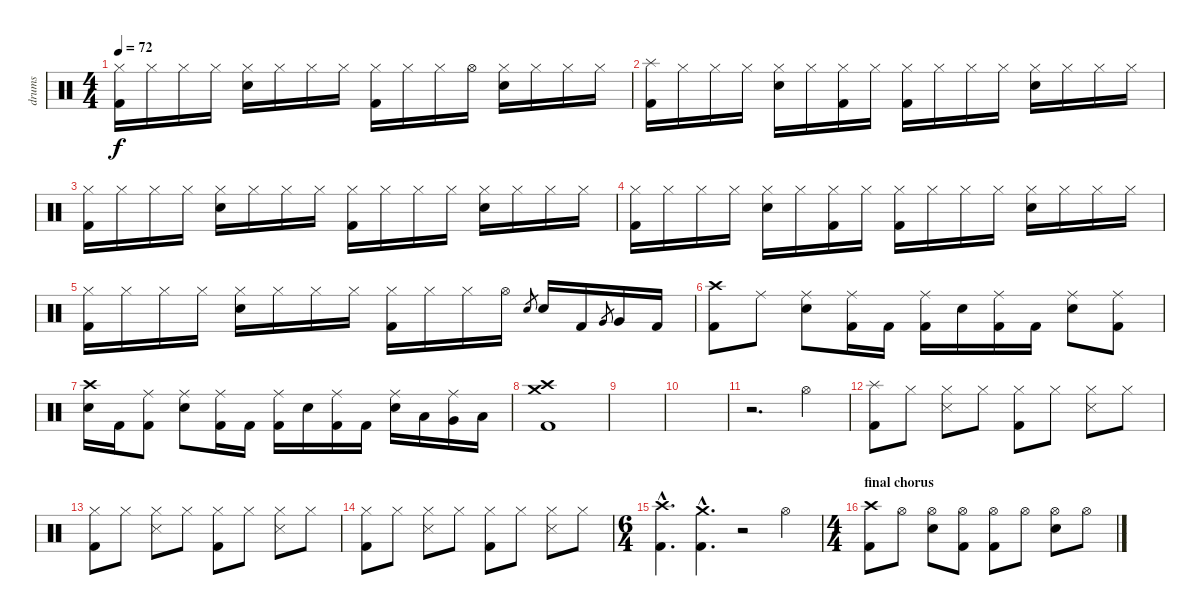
\track ("drums" "drums") {instrument percussion}
\staff {score}
\articulation defaults
\ts (4 4)
\tempo 72
\clef neutral
\ks c
("Hi-Hat (closed)" "Kick (hit) 2").16{dy f} "Hi-Hat (closed)".16 "Hi-Hat (closed)".16 "Hi-Hat (closed)".16 ("Hi-Hat (closed)" "Electric Snare (hit)").16 "Hi-Hat (closed)".16 "Hi-Hat (closed)".16 "Hi-Hat (closed)".16 ("Hi-Hat (closed)" "Kick (hit) 2").16 "Hi-Hat (closed)".16 "Hi-Hat (closed)".16 "Hi-Hat (open)".16 ("Hi-Hat (closed)" "Electric Snare (hit)").16 "Hi-Hat (closed)".16 "Hi-Hat (closed)".16 "Hi-Hat (closed)".16 |
("Splash (hit)" "Kick (hit) 2").16 "Hi-Hat (closed)".16 "Hi-Hat (closed)".16 "Hi-Hat (closed)".16 ("Hi-Hat (closed)" "Electric Snare (hit)").16 "Hi-Hat (closed)".16 ("Hi-Hat (closed)" "Kick (hit) 2").16 "Hi-Hat (closed)".16 ("Hi-Hat (closed)" "Kick (hit) 2").16 "Hi-Hat (closed)".16 "Hi-Hat (closed)".16 "Hi-Hat (closed)".16 ("Hi-Hat (closed)" "Electric Snare (hit)").16 "Hi-Hat (closed)".16 "Hi-Hat (closed)".16 "Hi-Hat (closed)".16 |
("Hi-Hat (closed)" "Kick (hit) 2").16 "Hi-Hat (closed)".16 "Hi-Hat (closed)".16 "Hi-Hat (closed)".16 ("Hi-Hat (closed)" "Electric Snare (hit)").16 "Hi-Hat (closed)".16 "Hi-Hat (closed)".16 "Hi-Hat (closed)".16 ("Hi-Hat (closed)" "Kick (hit) 2").16 "Hi-Hat (closed)".16 "Hi-Hat (closed)".16 "Hi-Hat (closed)".16 ("Hi-Hat (closed)" "Electric Snare (hit)").16 "Hi-Hat (closed)".16 "Hi-Hat (closed)".16 "Hi-Hat (closed)".16 |
("Hi-Hat (closed)" "Kick (hit) 2").16 "Hi-Hat (closed)".16 "Hi-Hat (closed)".16 "Hi-Hat (closed)".16 ("Hi-Hat (closed)" "Electric Snare (hit)").16 "Hi-Hat (closed)".16 ("Hi-Hat (closed)" "Kick (hit) 2").16 "Hi-Hat (closed)".16 ("Hi-Hat (closed)" "Kick (hit) 2").16 "Hi-Hat (closed)".16 "Hi-Hat (closed)".16 "Hi-Hat (closed)".16 ("Hi-Hat (closed)" "Electric Snare (hit)").16 "Hi-Hat (closed)".16 "Hi-Hat (closed)".16 "Hi-Hat (closed)".16 |
("Hi-Hat (closed)" "Kick (hit) 2").16 "Hi-Hat (closed)".16 "Hi-Hat (closed)".16 "Hi-Hat (closed)".16 ("Hi-Hat (closed)" "Electric Snare (hit)").16 "Hi-Hat (closed)".16 "Hi-Hat (closed)".16 "Hi-Hat (closed)".16 ("Hi-Hat (closed)" "Kick (hit) 2").16 "Hi-Hat (closed)".16 "Hi-Hat (closed)".16 "Hi-Hat (open)".16 "Electric Snare (hit)".8{gr} "Electric Snare (hit)".16 "Kick (hit) 2".16 "Very Low Tom (hit)".8{gr} "Very Low Tom (hit)".16 "Kick (hit) 2".16 |
("Crash high (hit)" "Kick (hit) 2").8 "Ride (middle)".8 ("Ride (middle)" "Electric Snare (hit)").8 ("Ride (middle)" "Kick (hit) 2").16 "Kick (hit) 2".16 ("Ride (middle)" "Kick (hit) 2").16 "Electric Snare (hit)".16 ("Ride (middle)" "Kick (hit) 2").16 "Kick (hit) 2".16 ("Ride (middle)" "Electric Snare (hit)").8 ("Ride (middle)" "Kick (hit) 2").8 |
("Crash high (hit)" "Electric Snare (hit)").16 "Kick (hit) 2".16 ("Ride (middle)" "Kick (hit) 2").8 ("Ride (middle)" "Electric Snare (hit)").8 ("Ride (middle)" "Kick (hit) 2").16 "Kick (hit) 2".16 ("Ride (middle)" "Kick (hit) 2").16 "Electric Snare (hit)".16 ("Ride (middle)" "Kick (hit) 2").16 "Kick (hit) 2".16 ("Ride (middle)" "Electric Snare (hit)").16 "Low Tom (hit)".16 ("Ride (middle)" "Very Low Tom (hit)").16 "Low Floor Tom (hit)".16 |
("Crash high (hit)" "Crash medium (hit)" "Kick (hit) 2").1 |
|
|
r.2{d} "Hi-Hat (open)".4 |
("Splash (hit)" "Kick (hit) 2").8 "Hi-Hat (closed)".8 ("Hi-Hat (closed)" "Snare (side stick) 3").8 "Hi-Hat (closed)".8 ("Hi-Hat (closed)" "Kick (hit) 2").8 "Hi-Hat (closed)".8 ("Hi-Hat (closed)" "Snare (side stick) 3").8 "Hi-Hat (closed)".8 |
("Hi-Hat (closed)" "Kick (hit) 2").8 "Hi-Hat (closed)".8 ("Hi-Hat (closed)" "Snare (side stick) 3").8 "Hi-Hat (closed)".8 ("Hi-Hat (closed)" "Kick (hit) 2").8 "Hi-Hat (closed)".8 ("Hi-Hat (closed)" "Snare (side stick) 3").8 "Hi-Hat (closed)".8 |
("Hi-Hat (closed)" "Kick (hit) 2").8 "Hi-Hat (closed)".8 ("Hi-Hat (closed)" "Snare (side stick) 3").8 "Hi-Hat (closed)".8 ("Hi-Hat (closed)" "Kick (hit) 2").8 "Hi-Hat (closed)".8 ("Hi-Hat (closed)" "Snare (side stick) 3").8 "Hi-Hat (closed)".8 |
\ts (6 4)
("Crash high (hit)"{hac} "Kick (hit) 2"{hac}).4{d} ("Crash medium (hit)"{hac} "Kick (hit) 2"{hac}).4{d} r.2 "Hi-Hat (open)".4 |
\ts (4 4)
\section ("" "final chorus")
("Crash high (hit)" "Kick (hit) 2").8 "Hi-Hat (open)".8 ("Hi-Hat (open)" "Electric Snare (hit)").8 ("Hi-Hat (open)" "Kick (hit) 2").8 ("Hi-Hat (open)" "Kick (hit) 2").8 "Hi-Hat (open)".8 ("Hi-Hat (open)" "Electric Snare (hit)").8 "Hi-Hat (open)".8
